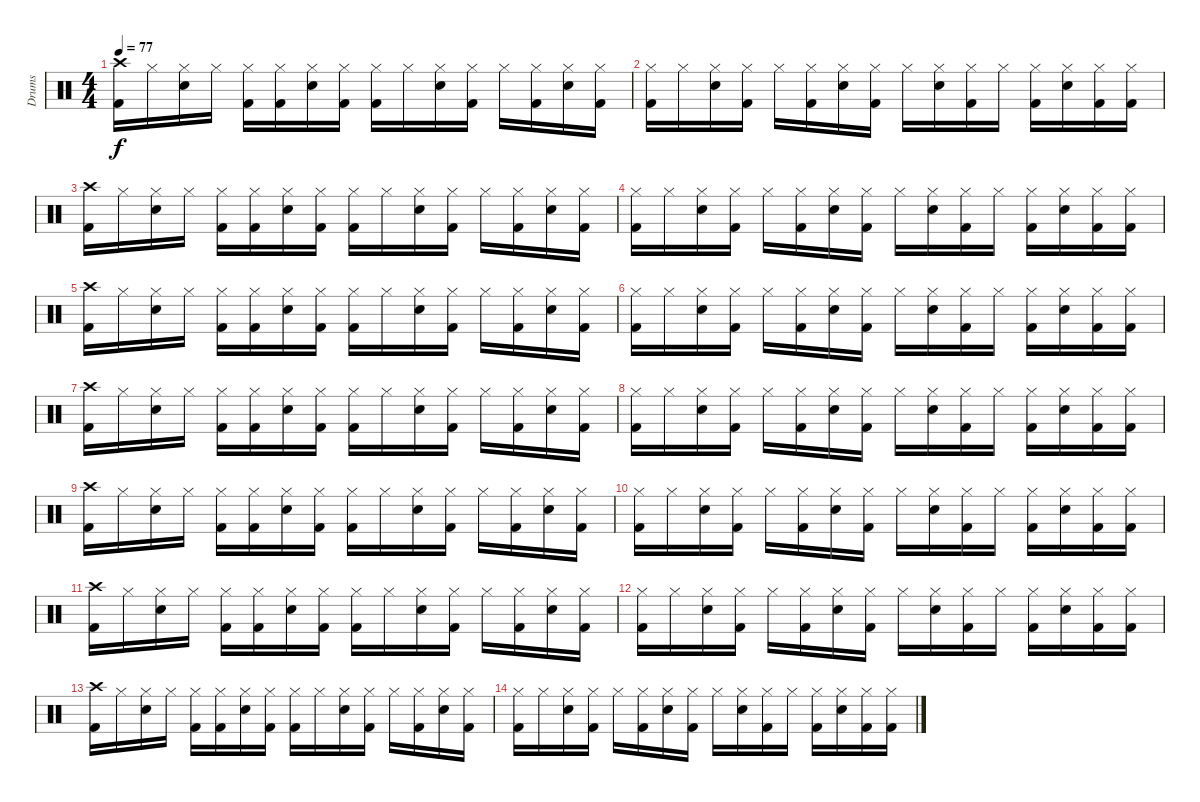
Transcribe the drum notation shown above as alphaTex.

\track ("Drums" "Drums") {instrument percussion}
\staff {score}
\articulation defaults
\ts (4 4)
\tempo 77
\clef neutral
\ks c
("Crash high (hit)" "Kick (hit) 2").16{dy f} "Hi-Hat (closed)".16 ("Hi-Hat (closed)" "Snare (hit) 2").16 "Hi-Hat (closed)".16 ("Hi-Hat (closed)" "Kick (hit) 2").16 ("Hi-Hat (closed)" "Kick (hit) 2").16 ("Hi-Hat (closed)" "Snare (hit) 2").16 ("Hi-Hat (closed)" "Kick (hit) 2").16 ("Hi-Hat (closed)" "Kick (hit) 2").16 "Hi-Hat (closed)".16 ("Hi-Hat (closed)" "Snare (hit) 2").16 ("Hi-Hat (closed)" "Kick (hit) 2").16 "Hi-Hat (closed)".16 ("Hi-Hat (closed)" "Kick (hit) 2").16 ("Hi-Hat (closed)" "Snare (hit) 2").16 ("Hi-Hat (closed)" "Kick (hit) 2").16 |
("Hi-Hat (closed)" "Kick (hit) 2").16 "Hi-Hat (closed)".16 ("Hi-Hat (closed)" "Snare (hit) 2").16 ("Hi-Hat (closed)" "Kick (hit) 2").16 "Hi-Hat (closed)".16 ("Hi-Hat (closed)" "Kick (hit) 2").16 ("Hi-Hat (closed)" "Snare (hit) 2").16 ("Hi-Hat (closed)" "Kick (hit) 2").16 "Hi-Hat (closed)".16 ("Hi-Hat (closed)" "Snare (hit) 2").16 ("Hi-Hat (closed)" "Kick (hit) 2").16 "Hi-Hat (closed)".16 ("Hi-Hat (closed)" "Kick (hit) 2").16 ("Hi-Hat (closed)" "Snare (hit) 2").16 ("Hi-Hat (closed)" "Kick (hit) 2").16 ("Hi-Hat (closed)" "Kick (hit) 2").16 |
("Crash high (hit)" "Kick (hit) 2").16 "Hi-Hat (closed)".16 ("Hi-Hat (closed)" "Snare (hit) 2").16 "Hi-Hat (closed)".16 ("Hi-Hat (closed)" "Kick (hit) 2").16 ("Hi-Hat (closed)" "Kick (hit) 2").16 ("Hi-Hat (closed)" "Snare (hit) 2").16 ("Hi-Hat (closed)" "Kick (hit) 2").16 ("Hi-Hat (closed)" "Kick (hit) 2").16 "Hi-Hat (closed)".16 ("Hi-Hat (closed)" "Snare (hit) 2").16 ("Hi-Hat (closed)" "Kick (hit) 2").16 "Hi-Hat (closed)".16 ("Hi-Hat (closed)" "Kick (hit) 2").16 ("Hi-Hat (closed)" "Snare (hit) 2").16 ("Hi-Hat (closed)" "Kick (hit) 2").16 |
("Hi-Hat (closed)" "Kick (hit) 2").16 "Hi-Hat (closed)".16 ("Hi-Hat (closed)" "Snare (hit) 2").16 ("Hi-Hat (closed)" "Kick (hit) 2").16 "Hi-Hat (closed)".16 ("Hi-Hat (closed)" "Kick (hit) 2").16 ("Hi-Hat (closed)" "Snare (hit) 2").16 ("Hi-Hat (closed)" "Kick (hit) 2").16 "Hi-Hat (closed)".16 ("Hi-Hat (closed)" "Snare (hit) 2").16 ("Hi-Hat (closed)" "Kick (hit) 2").16 "Hi-Hat (closed)".16 ("Hi-Hat (closed)" "Kick (hit) 2").16 ("Hi-Hat (closed)" "Snare (hit) 2").16 ("Hi-Hat (closed)" "Kick (hit) 2").16 ("Hi-Hat (closed)" "Kick (hit) 2").16 |
("Crash high (hit)" "Kick (hit) 2").16 "Hi-Hat (closed)".16 ("Hi-Hat (closed)" "Snare (hit) 2").16 "Hi-Hat (closed)".16 ("Hi-Hat (closed)" "Kick (hit) 2").16 ("Hi-Hat (closed)" "Kick (hit) 2").16 ("Hi-Hat (closed)" "Snare (hit) 2").16 ("Hi-Hat (closed)" "Kick (hit) 2").16 ("Hi-Hat (closed)" "Kick (hit) 2").16 "Hi-Hat (closed)".16 ("Hi-Hat (closed)" "Snare (hit) 2").16 ("Hi-Hat (closed)" "Kick (hit) 2").16 "Hi-Hat (closed)".16 ("Hi-Hat (closed)" "Kick (hit) 2").16 ("Hi-Hat (closed)" "Snare (hit) 2").16 ("Hi-Hat (closed)" "Kick (hit) 2").16 |
("Hi-Hat (closed)" "Kick (hit) 2").16 "Hi-Hat (closed)".16 ("Hi-Hat (closed)" "Snare (hit) 2").16 ("Hi-Hat (closed)" "Kick (hit) 2").16 "Hi-Hat (closed)".16 ("Hi-Hat (closed)" "Kick (hit) 2").16 ("Hi-Hat (closed)" "Snare (hit) 2").16 ("Hi-Hat (closed)" "Kick (hit) 2").16 "Hi-Hat (closed)".16 ("Hi-Hat (closed)" "Snare (hit) 2").16 ("Hi-Hat (closed)" "Kick (hit) 2").16 "Hi-Hat (closed)".16 ("Hi-Hat (closed)" "Kick (hit) 2").16 ("Hi-Hat (closed)" "Snare (hit) 2").16 ("Hi-Hat (closed)" "Kick (hit) 2").16 ("Hi-Hat (closed)" "Kick (hit) 2").16 |
("Crash high (hit)" "Kick (hit) 2").16 "Hi-Hat (closed)".16 ("Hi-Hat (closed)" "Snare (hit) 2").16 "Hi-Hat (closed)".16 ("Hi-Hat (closed)" "Kick (hit) 2").16 ("Hi-Hat (closed)" "Kick (hit) 2").16 ("Hi-Hat (closed)" "Snare (hit) 2").16 ("Hi-Hat (closed)" "Kick (hit) 2").16 ("Hi-Hat (closed)" "Kick (hit) 2").16 "Hi-Hat (closed)".16 ("Hi-Hat (closed)" "Snare (hit) 2").16 ("Hi-Hat (closed)" "Kick (hit) 2").16 "Hi-Hat (closed)".16 ("Hi-Hat (closed)" "Kick (hit) 2").16 ("Hi-Hat (closed)" "Snare (hit) 2").16 ("Hi-Hat (closed)" "Kick (hit) 2").16 |
("Hi-Hat (closed)" "Kick (hit) 2").16 "Hi-Hat (closed)".16 ("Hi-Hat (closed)" "Snare (hit) 2").16 ("Hi-Hat (closed)" "Kick (hit) 2").16 "Hi-Hat (closed)".16 ("Hi-Hat (closed)" "Kick (hit) 2").16 ("Hi-Hat (closed)" "Snare (hit) 2").16 ("Hi-Hat (closed)" "Kick (hit) 2").16 "Hi-Hat (closed)".16 ("Hi-Hat (closed)" "Snare (hit) 2").16 ("Hi-Hat (closed)" "Kick (hit) 2").16 "Hi-Hat (closed)".16 ("Hi-Hat (closed)" "Kick (hit) 2").16 ("Hi-Hat (closed)" "Snare (hit) 2").16 ("Hi-Hat (closed)" "Kick (hit) 2").16 ("Hi-Hat (closed)" "Kick (hit) 2").16 |
("Crash high (hit)" "Kick (hit) 2").16 "Hi-Hat (closed)".16 ("Hi-Hat (closed)" "Snare (hit) 2").16 "Hi-Hat (closed)".16 ("Hi-Hat (closed)" "Kick (hit) 2").16 ("Hi-Hat (closed)" "Kick (hit) 2").16 ("Hi-Hat (closed)" "Snare (hit) 2").16 ("Hi-Hat (closed)" "Kick (hit) 2").16 ("Hi-Hat (closed)" "Kick (hit) 2").16 "Hi-Hat (closed)".16 ("Hi-Hat (closed)" "Snare (hit) 2").16 ("Hi-Hat (closed)" "Kick (hit) 2").16 "Hi-Hat (closed)".16 ("Hi-Hat (closed)" "Kick (hit) 2").16 ("Hi-Hat (closed)" "Snare (hit) 2").16 ("Hi-Hat (closed)" "Kick (hit) 2").16 |
("Hi-Hat (closed)" "Kick (hit) 2").16 "Hi-Hat (closed)".16 ("Hi-Hat (closed)" "Snare (hit) 2").16 ("Hi-Hat (closed)" "Kick (hit) 2").16 "Hi-Hat (closed)".16 ("Hi-Hat (closed)" "Kick (hit) 2").16 ("Hi-Hat (closed)" "Snare (hit) 2").16 ("Hi-Hat (closed)" "Kick (hit) 2").16 "Hi-Hat (closed)".16 ("Hi-Hat (closed)" "Snare (hit) 2").16 ("Hi-Hat (closed)" "Kick (hit) 2").16 "Hi-Hat (closed)".16 ("Hi-Hat (closed)" "Kick (hit) 2").16 ("Hi-Hat (closed)" "Snare (hit) 2").16 ("Hi-Hat (closed)" "Kick (hit) 2").16 ("Hi-Hat (closed)" "Kick (hit) 2").16 |
("Crash high (hit)" "Kick (hit) 2").16 "Hi-Hat (closed)".16 ("Hi-Hat (closed)" "Snare (hit) 2").16 "Hi-Hat (closed)".16 ("Hi-Hat (closed)" "Kick (hit) 2").16 ("Hi-Hat (closed)" "Kick (hit) 2").16 ("Hi-Hat (closed)" "Snare (hit) 2").16 ("Hi-Hat (closed)" "Kick (hit) 2").16 ("Hi-Hat (closed)" "Kick (hit) 2").16 "Hi-Hat (closed)".16 ("Hi-Hat (closed)" "Snare (hit) 2").16 ("Hi-Hat (closed)" "Kick (hit) 2").16 "Hi-Hat (closed)".16 ("Hi-Hat (closed)" "Kick (hit) 2").16 ("Hi-Hat (closed)" "Snare (hit) 2").16 ("Hi-Hat (closed)" "Kick (hit) 2").16 |
("Hi-Hat (closed)" "Kick (hit) 2").16 "Hi-Hat (closed)".16 ("Hi-Hat (closed)" "Snare (hit) 2").16 ("Hi-Hat (closed)" "Kick (hit) 2").16 "Hi-Hat (closed)".16 ("Hi-Hat (closed)" "Kick (hit) 2").16 ("Hi-Hat (closed)" "Snare (hit) 2").16 ("Hi-Hat (closed)" "Kick (hit) 2").16 "Hi-Hat (closed)".16 ("Hi-Hat (closed)" "Snare (hit) 2").16 ("Hi-Hat (closed)" "Kick (hit) 2").16 "Hi-Hat (closed)".16 ("Hi-Hat (closed)" "Kick (hit) 2").16 ("Hi-Hat (closed)" "Snare (hit) 2").16 ("Hi-Hat (closed)" "Kick (hit) 2").16 ("Hi-Hat (closed)" "Kick (hit) 2").16 |
("Crash high (hit)" "Kick (hit) 2").16 "Hi-Hat (closed)".16 ("Hi-Hat (closed)" "Snare (hit) 2").16 "Hi-Hat (closed)".16 ("Hi-Hat (closed)" "Kick (hit) 2").16 ("Hi-Hat (closed)" "Kick (hit) 2").16 ("Hi-Hat (closed)" "Snare (hit) 2").16 ("Hi-Hat (closed)" "Kick (hit) 2").16 ("Hi-Hat (closed)" "Kick (hit) 2").16 "Hi-Hat (closed)".16 ("Hi-Hat (closed)" "Snare (hit) 2").16 ("Hi-Hat (closed)" "Kick (hit) 2").16 "Hi-Hat (closed)".16 ("Hi-Hat (closed)" "Kick (hit) 2").16 ("Hi-Hat (closed)" "Snare (hit) 2").16 ("Hi-Hat (closed)" "Kick (hit) 2").16 |
("Hi-Hat (closed)" "Kick (hit) 2").16 "Hi-Hat (closed)".16 ("Hi-Hat (closed)" "Snare (hit) 2").16 ("Hi-Hat (closed)" "Kick (hit) 2").16 "Hi-Hat (closed)".16 ("Hi-Hat (closed)" "Kick (hit) 2").16 ("Hi-Hat (closed)" "Snare (hit) 2").16 ("Hi-Hat (closed)" "Kick (hit) 2").16 "Hi-Hat (closed)".16 ("Hi-Hat (closed)" "Snare (hit) 2").16 ("Hi-Hat (closed)" "Kick (hit) 2").16 "Hi-Hat (closed)".16 ("Hi-Hat (closed)" "Kick (hit) 2").16 ("Hi-Hat (closed)" "Snare (hit) 2").16 ("Hi-Hat (closed)" "Kick (hit) 2").16 ("Hi-Hat (closed)" "Kick (hit) 2").16
